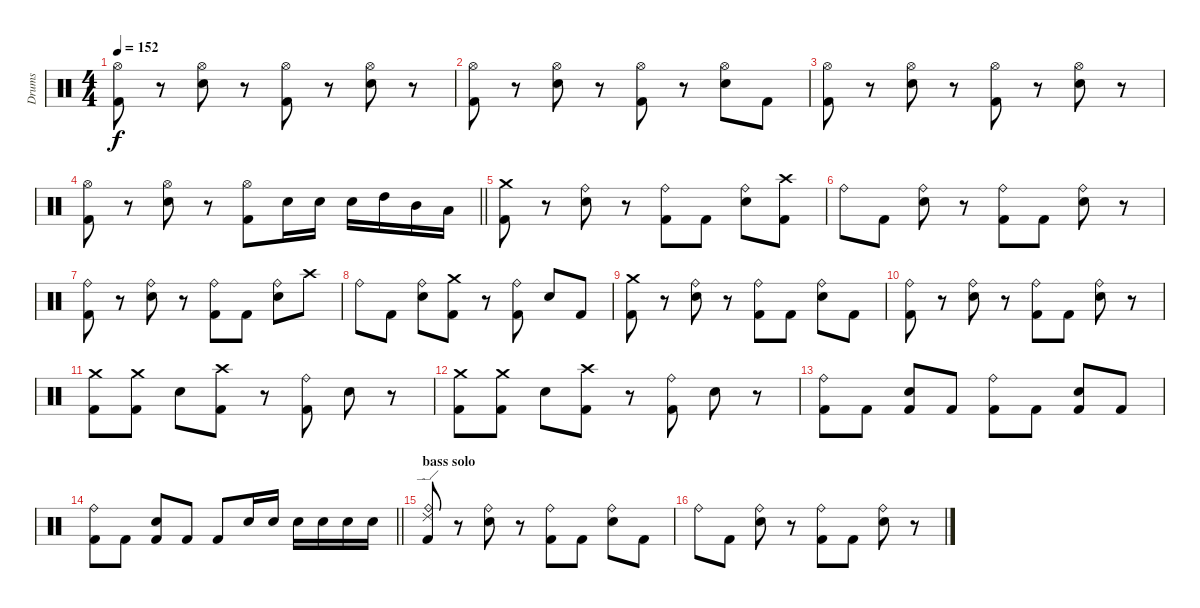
\track ("Drums" "Drums") {instrument percussion}
\staff {score}
\articulation defaults
\ts (4 4)
\tempo 152
\clef neutral
\ks c
("Hi-Hat (open)" "Kick (hit) 2").8{dy f} r.8 ("Hi-Hat (open)" "Snare (hit) 2").8 r.8 ("Hi-Hat (open)" "Kick (hit) 2").8 r.8 ("Hi-Hat (open)" "Snare (hit) 2").8 r.8 |
("Hi-Hat (open)" "Kick (hit) 2").8 r.8 ("Hi-Hat (open)" "Snare (hit) 2").8 r.8 ("Hi-Hat (open)" "Kick (hit) 2").8 r.8 ("Hi-Hat (open)" "Snare (hit) 2").8 "Kick (hit) 2".8 |
("Hi-Hat (open)" "Kick (hit) 2").8 r.8 ("Hi-Hat (open)" "Snare (hit) 2").8 r.8 ("Hi-Hat (open)" "Kick (hit) 2").8 r.8 ("Hi-Hat (open)" "Snare (hit) 2").8 r.8 |
\barLineRight lightlight
("Hi-Hat (open)" "Kick (hit) 2").8 r.8 ("Hi-Hat (open)" "Snare (hit) 2").8 r.8 ("Hi-Hat (open)" "Kick (hit) 2").8 "Snare (hit) 2".16 "Snare (hit) 2".16 "Snare (hit) 2".16 "High Tom (hit)".16 "Mid Tom (hit)".16 "Low Tom (hit)".16 |
("Crash medium (hit)" "Kick (hit) 2").8 r.8 ("Snare (hit) 2" "Ride (bell)").8 r.8 ("Kick (hit) 2" "Ride (bell)").8 "Kick (hit) 2".8 ("Snare (hit) 2" "Ride (bell)").8 ("Crash high (hit)" "Kick (hit) 2").8 |
"Ride (bell)".8 "Kick (hit) 2".8 ("Snare (hit) 2" "Ride (bell)").8 r.8 ("Ride (bell)" "Kick (hit) 2").8 "Kick (hit) 2".8 ("Snare (hit) 2" "Ride (bell)").8 r.8 |
("Ride (bell)" "Kick (hit) 2").8 r.8 ("Snare (hit) 2" "Ride (bell)").8 r.8 ("Kick (hit) 2" "Ride (bell)").8 "Kick (hit) 2".8 ("Snare (hit) 2" "Ride (bell)").8 "Crash high (hit)".8 |
"Ride (bell)".8 "Kick (hit) 2".8 ("Snare (hit) 2" "Ride (bell)").8 ("Kick (hit) 2" "Crash medium (hit)").8 r.8 ("Kick (hit) 2" "Ride (bell)").8 "Snare (hit) 2".8 "Kick (hit) 2".8 |
("Crash medium (hit)" "Kick (hit) 2").8 r.8 ("Snare (hit) 2" "Ride (bell)").8 r.8 ("Kick (hit) 2" "Ride (bell)").8 "Kick (hit) 2".8 ("Snare (hit) 2" "Ride (bell)").8 "Kick (hit) 2".8 |
("Ride (bell)" "Kick (hit) 2").8 r.8 ("Snare (hit) 2" "Ride (bell)").8 r.8 ("Kick (hit) 2" "Ride (bell)").8 "Kick (hit) 2".8 ("Snare (hit) 2" "Ride (bell)").8 r.8 |
("Crash medium (hit)" "Kick (hit) 2").8 ("Crash medium (hit)" "Kick (hit) 2").8 "Snare (hit) 2".8 ("Crash high (hit)" "Kick (hit) 2").8 r.8 ("Kick (hit) 2" "Ride (bell)").8 "Snare (hit) 2".8 r.8 |
("Crash medium (hit)" "Kick (hit) 2").8 ("Crash medium (hit)" "Kick (hit) 2").8 "Snare (hit) 2".8 ("Crash high (hit)" "Kick (hit) 2").8 r.8 ("Kick (hit) 2" "Ride (bell)").8 "Snare (hit) 2".8 r.8 |
("Ride (bell)" "Kick (hit) 2").8 "Kick (hit) 2".8 ("Snare (hit) 2" "Kick (hit) 2").8 "Kick (hit) 2".8 ("Ride (bell)" "Kick (hit) 2").8 "Kick (hit) 2".8 ("Snare (hit) 2" "Kick (hit) 2").8 "Kick (hit) 2".8 |
\barLineRight lightlight
("Ride (bell)" "Kick (hit) 2").8 "Kick (hit) 2".8 ("Snare (hit) 2" "Kick (hit) 2").8 "Kick (hit) 2".8 "Kick (hit) 2".8 "Snare (hit) 2".16 "Snare (hit) 2".16 "Snare (hit) 2".16 "Snare (hit) 2".16 "Snare (hit) 2".16 "Snare (hit) 2".16 |
\section ("" "bass solo")
("Ride (edge) 2" "Kick (hit) 2" "Ride (bell)").8 r.8 ("Snare (hit) 2" "Ride (bell)").8 r.8 ("Kick (hit) 2" "Ride (bell)").8 "Kick (hit) 2".8 ("Snare (hit) 2" "Ride (bell)").8 "Kick (hit) 2".8 |
"Ride (bell)".8 "Kick (hit) 2".8 ("Snare (hit) 2" "Ride (bell)").8 r.8 ("Kick (hit) 2" "Ride (bell)").8 "Kick (hit) 2".8 ("Snare (hit) 2" "Ride (bell)").8 r.8
